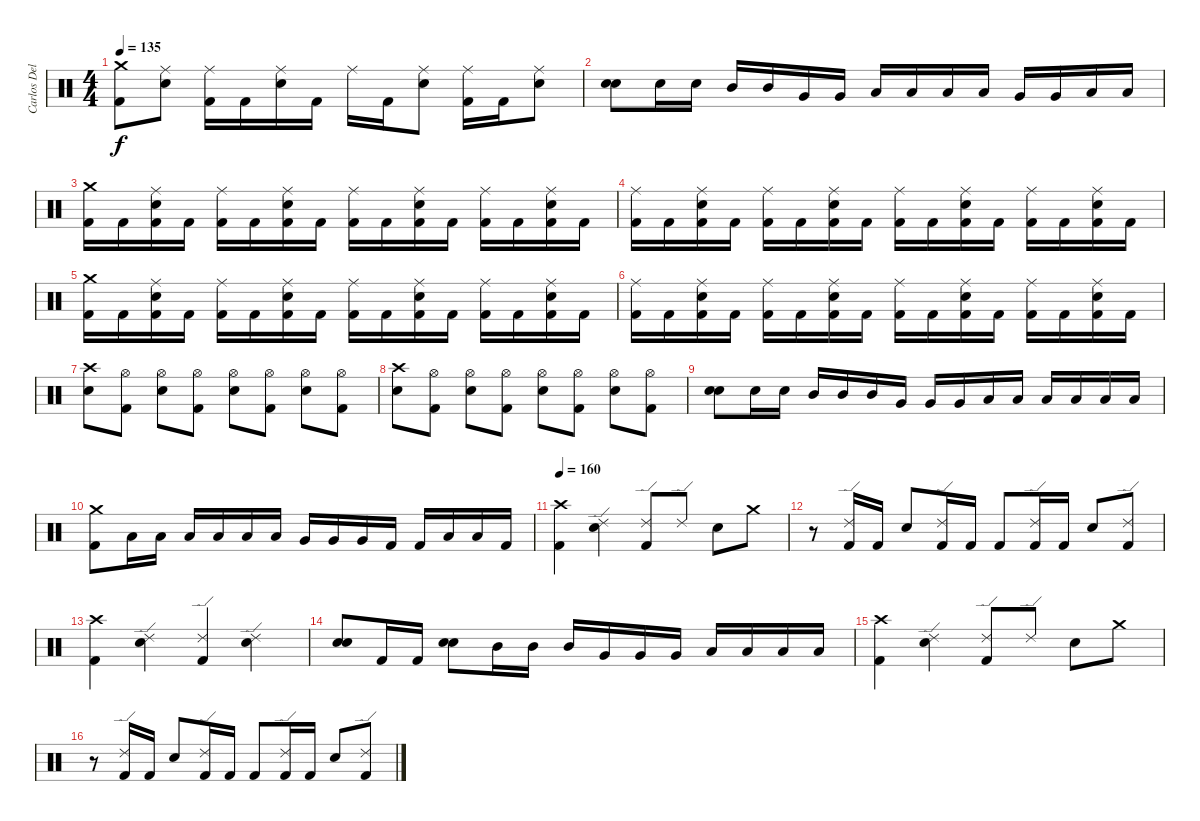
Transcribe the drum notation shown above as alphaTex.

\track ("Carlos Delgado" "Carlos Del") {instrument percussion}
\staff {score}
\articulation defaults
\ts (4 4)
\tempo 135
\clef neutral
\ks c
("Crash medium (hit)" "Kick (hit) 2").8{dy f} ("Ride (middle)" "Electric Snare (hit)").8 ("Ride (middle)" "Kick (hit) 2").16 "Kick (hit) 2".16 ("Ride (middle)" "Electric Snare (hit)").16 "Kick (hit) 2".16 "Ride (middle)".16 "Kick (hit) 2".16 ("Ride (middle)" "Electric Snare (hit)").8 ("Ride (middle)" "Kick (hit) 2").16 "Kick (hit) 2".16 ("Ride (middle)" "Electric Snare (hit)").8 |
("Electric Snare (hit)" "Electric Snare (hit)").8{bd 240} "Electric Snare (hit)".16 "Electric Snare (hit)".16 "Mid Tom (hit)".16 "Mid Tom (hit)".16 "Very Low Tom (hit)".16 "Very Low Tom (hit)".16 "Low Tom (hit)".16 "Low Tom (hit)".16 "Low Floor Tom (hit)".16 "Low Floor Tom (hit)".16 "Very Low Tom (hit)".16 "Very Low Tom (hit)".16 "Low Tom (hit)".16 "Low Tom (hit)".16 |
("Crash medium (hit)" "Kick (hit) 2").16 "Kick (hit) 2".16 ("Ride (middle)" "Electric Snare (hit)" "Kick (hit) 2").16 "Kick (hit) 2".16 ("Ride (middle)" "Kick (hit) 2").16 "Kick (hit) 2".16 ("Ride (middle)" "Electric Snare (hit)" "Kick (hit) 2").16 "Kick (hit) 2".16 ("Ride (middle)" "Kick (hit) 2").16 "Kick (hit) 2".16 ("Ride (middle)" "Electric Snare (hit)" "Kick (hit) 2").16 "Kick (hit) 2".16 ("Ride (middle)" "Kick (hit) 2").16 "Kick (hit) 2".16 ("Ride (middle)" "Electric Snare (hit)" "Kick (hit) 2").16 "Kick (hit) 2".16 |
("Ride (middle)" "Kick (hit) 2").16 "Kick (hit) 2".16 ("Ride (middle)" "Electric Snare (hit)" "Kick (hit) 2").16 "Kick (hit) 2".16 ("Ride (middle)" "Kick (hit) 2").16 "Kick (hit) 2".16 ("Ride (middle)" "Electric Snare (hit)" "Kick (hit) 2").16 "Kick (hit) 2".16 ("Ride (middle)" "Kick (hit) 2").16 "Kick (hit) 2".16 ("Ride (middle)" "Electric Snare (hit)" "Kick (hit) 2").16 "Kick (hit) 2".16 ("Ride (middle)" "Kick (hit) 2").16 "Kick (hit) 2".16 ("Ride (middle)" "Electric Snare (hit)" "Kick (hit) 2").16 "Kick (hit) 2".16 |
("Crash medium (hit)" "Kick (hit) 2").16 "Kick (hit) 2".16 ("Ride (middle)" "Electric Snare (hit)" "Kick (hit) 2").16 "Kick (hit) 2".16 ("Ride (middle)" "Kick (hit) 2").16 "Kick (hit) 2".16 ("Ride (middle)" "Electric Snare (hit)" "Kick (hit) 2").16 "Kick (hit) 2".16 ("Ride (middle)" "Kick (hit) 2").16 "Kick (hit) 2".16 ("Ride (middle)" "Electric Snare (hit)" "Kick (hit) 2").16 "Kick (hit) 2".16 ("Ride (middle)" "Kick (hit) 2").16 "Kick (hit) 2".16 ("Ride (middle)" "Electric Snare (hit)" "Kick (hit) 2").16 "Kick (hit) 2".16 |
("Ride (middle)" "Kick (hit) 2").16 "Kick (hit) 2".16 ("Ride (middle)" "Electric Snare (hit)" "Kick (hit) 2").16 "Kick (hit) 2".16 ("Ride (middle)" "Kick (hit) 2").16 "Kick (hit) 2".16 ("Ride (middle)" "Electric Snare (hit)" "Kick (hit) 2").16 "Kick (hit) 2".16 ("Ride (middle)" "Kick (hit) 2").16 "Kick (hit) 2".16 ("Ride (middle)" "Electric Snare (hit)" "Kick (hit) 2").16 "Kick (hit) 2".16 ("Ride (middle)" "Kick (hit) 2").16 "Kick (hit) 2".16 ("Ride (middle)" "Electric Snare (hit)" "Kick (hit) 2").16 "Kick (hit) 2".16 |
("Crash high (hit)" "Electric Snare (hit)").8 ("Hi-Hat (open)" "Kick (hit) 2").8 ("Hi-Hat (open)" "Electric Snare (hit)").8 ("Hi-Hat (open)" "Kick (hit) 2").8 ("Hi-Hat (open)" "Electric Snare (hit)").8 ("Hi-Hat (open)" "Kick (hit) 2").8 ("Hi-Hat (open)" "Electric Snare (hit)").8 ("Hi-Hat (open)" "Kick (hit) 2").8 |
("Crash high (hit)" "Electric Snare (hit)").8 ("Hi-Hat (open)" "Kick (hit) 2").8 ("Hi-Hat (open)" "Electric Snare (hit)").8 ("Hi-Hat (open)" "Kick (hit) 2").8 ("Hi-Hat (open)" "Electric Snare (hit)").8 ("Hi-Hat (open)" "Kick (hit) 2").8 ("Hi-Hat (open)" "Electric Snare (hit)").8 ("Hi-Hat (open)" "Kick (hit) 2").8 |
("Electric Snare (hit)" "Electric Snare (hit)").8{bd 240} "Electric Snare (hit)".16 "Electric Snare (hit)".16 "Mid Tom (hit)".16 "Mid Tom (hit)".16 "Mid Tom (hit)".16 "Very Low Tom (hit)".16 "Very Low Tom (hit)".16 "Very Low Tom (hit)".16 "Low Tom (hit)".16 "Low Tom (hit)".16 "Low Tom (hit)".16 "Low Floor Tom (hit)".16 "Low Floor Tom (hit)".16 "Low Floor Tom (hit)".16 |
("Crash medium (hit)" "Kick (hit) 2").8 "Low Tom (hit)".16 "Low Tom (hit)".16 "Low Tom (hit)".16 "Low Floor Tom (hit)".16 "Low Floor Tom (hit)".16 "Low Floor Tom (hit)".16 "Very Low Tom (hit)".16 "Very Low Tom (hit)".16 "Very Low Tom (hit)".16 "Kick (hit) 2".16 "Kick (hit) 2".16 "Low Tom (hit)".16 "Low Tom (hit)".16 "Kick (hit) 2".16 |
\tempo 160
("Crash high (hit)" "Kick (hit) 2").4 ("Ride (edge) 2" "Electric Snare (hit)").4 ("Ride (edge) 2" "Kick (hit) 2").8 "Ride (edge) 2".8 "Electric Snare (hit)".8 "Crash medium (hit)".8 |
r.8 ("Ride (edge) 2" "Kick (hit) 2").16 "Kick (hit) 2".16 "Electric Snare (hit)".8 ("Ride (edge) 2" "Kick (hit) 2").16 "Kick (hit) 2".16 "Kick (hit) 2".8 ("Ride (edge) 2" "Kick (hit) 2").16 "Kick (hit) 2".16 "Electric Snare (hit)".8 ("Ride (edge) 2" "Kick (hit) 2").8 |
("Crash high (hit)" "Kick (hit) 2").4 ("Ride (edge) 2" "Electric Snare (hit)").4 ("Ride (edge) 2" "Kick (hit) 2").4 ("Ride (edge) 2" "Electric Snare (hit)").4 |
("Electric Snare (hit)" "Electric Snare (hit)").8{bd 240} "Kick (hit) 2".16 "Kick (hit) 2".16 ("Electric Snare (hit)" "Electric Snare (hit)").8{bd 240} "Mid Tom (hit)".16 "Mid Tom (hit)".16 "Mid Tom (hit)".16 "Very Low Tom (hit)".16 "Very Low Tom (hit)".16 "Very Low Tom (hit)".16 "Low Tom (hit)".16 "Low Tom (hit)".16 "Low Tom (hit)".16 "Low Floor Tom (hit)".16 |
("Crash high (hit)" "Kick (hit) 2").4 ("Ride (edge) 2" "Electric Snare (hit)").4 ("Ride (edge) 2" "Kick (hit) 2").8 "Ride (edge) 2".8 "Electric Snare (hit)".8 "Crash medium (hit)".8 |
r.8 ("Ride (edge) 2" "Kick (hit) 2").16 "Kick (hit) 2".16 "Electric Snare (hit)".8 ("Ride (edge) 2" "Kick (hit) 2").16 "Kick (hit) 2".16 "Kick (hit) 2".8 ("Ride (edge) 2" "Kick (hit) 2").16 "Kick (hit) 2".16 "Electric Snare (hit)".8 ("Ride (edge) 2" "Kick (hit) 2").8
